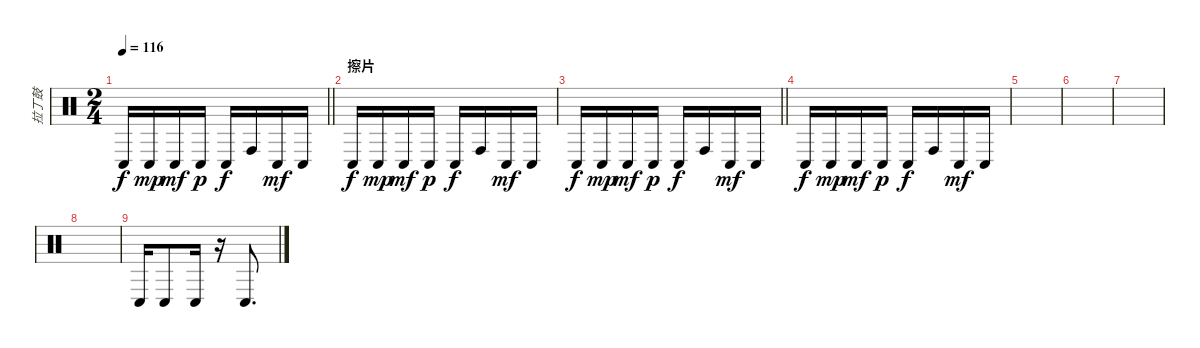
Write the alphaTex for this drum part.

\track ("拉丁鼓" "拉丁鼓") {instrument percussion}
\staff {score}
\articulation defaults
\ts (2 4)
\tempo 116
\clef neutral
\barLineRight lightlight
\ks c "Conga low (hit)".16{dy f} "Conga low (hit)".16{dy mp} "Conga low (hit)".16{dy mf} "Conga low (hit)".16{dy p} "Conga low (hit)".16{dy f} "Conga high (hit)".16 "Conga low (hit)".16{dy mf} "Conga low (hit)".16
|
\section ("" "擦片")
"Conga low (hit)".16{dy f} "Conga low (hit)".16{dy mp} "Conga low (hit)".16{dy mf} "Conga low (hit)".16{dy p} "Conga low (hit)".16{dy f} "Conga high (hit)".16 "Conga low (hit)".16{dy mf} "Conga low (hit)".16 |
\barLineRight lightlight "Conga low (hit)".16{dy f} "Conga low (hit)".16{dy mp} "Conga low (hit)".16{dy mf} "Conga low (hit)".16{dy p} "Conga low (hit)".16{dy f} "Conga high (hit)".16 "Conga low (hit)".16{dy mf} "Conga low (hit)".16
|
"Conga low (hit)".16{dy f} "Conga low (hit)".16{dy mp} "Conga low (hit)".16{dy mf} "Conga low (hit)".16{dy p} "Conga low (hit)".16{dy f} "Conga high (hit)".16 "Conga low (hit)".16{dy mf} "Conga low (hit)".16 |
|
|
|
|
"Conga low (hit)".16 "Conga low (hit)".8 "Conga low (hit)".16 r.16 "Conga low (hit)".8{d}
